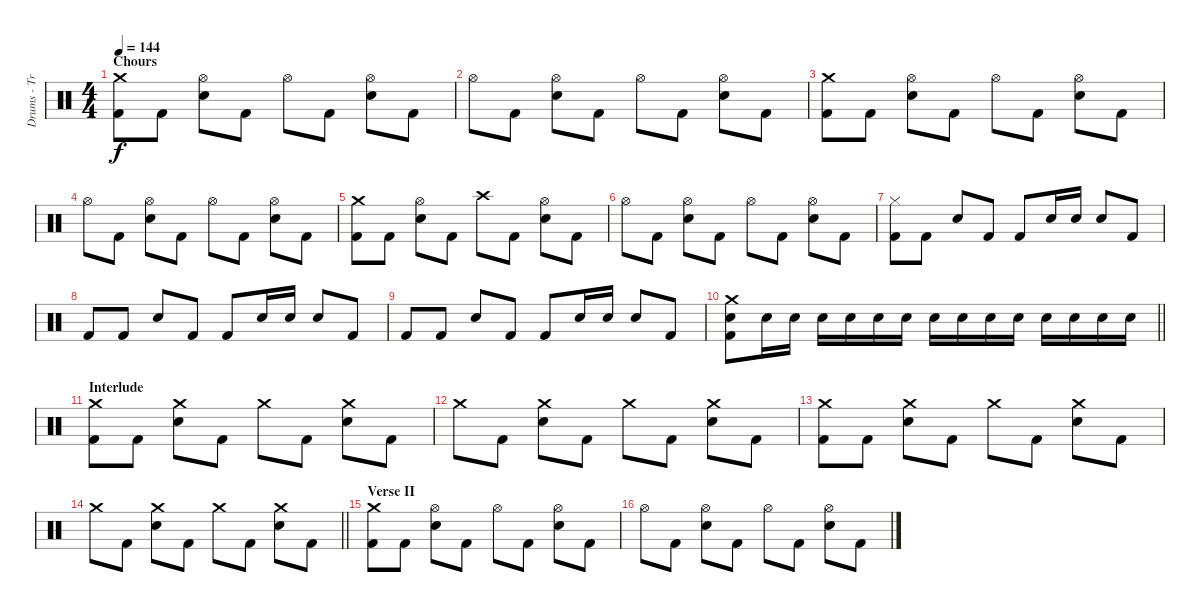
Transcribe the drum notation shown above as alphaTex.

\track ("Drums - Tre Cool" "Drums - Tr") {instrument percussion}
\staff {score}
\articulation defaults
\ts (4 4)
\section ("" "Chours")
\tempo 144
\clef neutral
\ks c
("Crash medium (hit)" "Kick (hit) 2").8{dy f} "Kick (hit) 2".8 ("Hi-Hat (open)" "Snare (hit) 2").8 "Kick (hit) 2".8 "Hi-Hat (open)".8 "Kick (hit) 2".8 ("Hi-Hat (open)" "Snare (hit) 2").8 "Kick (hit) 2".8 |
"Hi-Hat (open)".8 "Kick (hit) 2".8 ("Hi-Hat (open)" "Snare (hit) 2").8 "Kick (hit) 2".8 "Hi-Hat (open)".8 "Kick (hit) 2".8 ("Hi-Hat (open)" "Snare (hit) 2").8 "Kick (hit) 2".8 |
("Crash medium (hit)" "Kick (hit) 2").8 "Kick (hit) 2".8 ("Hi-Hat (open)" "Snare (hit) 2").8 "Kick (hit) 2".8 "Hi-Hat (open)".8 "Kick (hit) 2".8 ("Hi-Hat (open)" "Snare (hit) 2").8 "Kick (hit) 2".8 |
"Hi-Hat (open)".8 "Kick (hit) 2".8 ("Hi-Hat (open)" "Snare (hit) 2").8 "Kick (hit) 2".8 "Hi-Hat (open)".8 "Kick (hit) 2".8 ("Hi-Hat (open)" "Snare (hit) 2").8 "Kick (hit) 2".8 |
("Crash medium (hit)" "Kick (hit) 2").8 "Kick (hit) 2".8 ("Hi-Hat (open)" "Snare (hit) 2").8 "Kick (hit) 2".8 "Crash high (hit)".8 "Kick (hit) 2".8 ("Hi-Hat (open)" "Snare (hit) 2").8 "Kick (hit) 2".8 |
"Hi-Hat (open)".8 "Kick (hit) 2".8 ("Hi-Hat (open)" "Snare (hit) 2").8 "Kick (hit) 2".8 "Hi-Hat (open)".8 "Kick (hit) 2".8 ("Hi-Hat (open)" "Snare (hit) 2").8 "Kick (hit) 2".8 |
("Hi-Hat (closed)" "Kick (hit) 2").8 "Kick (hit) 2".8 "Snare (hit) 2".8 "Kick (hit) 2".8 "Kick (hit) 2".8 "Snare (hit) 2".16 "Snare (hit) 2".16 "Snare (hit) 2".8 "Kick (hit) 2".8 |
"Kick (hit) 2".8 "Kick (hit) 2".8 "Snare (hit) 2".8 "Kick (hit) 2".8 "Kick (hit) 2".8 "Snare (hit) 2".16 "Snare (hit) 2".16 "Snare (hit) 2".8 "Kick (hit) 2".8 |
"Kick (hit) 2".8 "Kick (hit) 2".8 "Snare (hit) 2".8 "Kick (hit) 2".8 "Kick (hit) 2".8 "Snare (hit) 2".16 "Snare (hit) 2".16 "Snare (hit) 2".8 "Kick (hit) 2".8 |
\barLineRight lightlight
("Crash medium (hit)" "Snare (hit) 2" "Kick (hit) 2").8 "Snare (hit) 2".16 "Snare (hit) 2".16 "Snare (hit) 2".16 "Snare (hit) 2".16 "Snare (hit) 2".16 "Snare (hit) 2".16 "Snare (hit) 2".16 "Snare (hit) 2".16 "Snare (hit) 2".16 "Snare (hit) 2".16 "Snare (hit) 2".16 "Snare (hit) 2".16 "Snare (hit) 2".16 "Snare (hit) 2".16 |
\section ("" "Interlude ")
("Crash medium (hit)" "Kick (hit) 2").8 "Kick (hit) 2".8 ("Crash medium (hit)" "Snare (hit) 2").8 "Kick (hit) 2".8 "Crash medium (hit)".8 "Kick (hit) 2".8 ("Crash medium (hit)" "Snare (hit) 2").8 "Kick (hit) 2".8 |
"Crash medium (hit)".8 "Kick (hit) 2".8 ("Crash medium (hit)" "Snare (hit) 2").8 "Kick (hit) 2".8 "Crash medium (hit)".8 "Kick (hit) 2".8 ("Crash medium (hit)" "Snare (hit) 2").8 "Kick (hit) 2".8 |
("Crash medium (hit)" "Kick (hit) 2").8 "Kick (hit) 2".8 ("Crash medium (hit)" "Snare (hit) 2").8 "Kick (hit) 2".8 "Crash medium (hit)".8 "Kick (hit) 2".8 ("Crash medium (hit)" "Snare (hit) 2").8 "Kick (hit) 2".8 |
\barLineRight lightlight "Crash medium (hit)".8 "Kick (hit) 2".8
("Crash medium (hit)" "Snare (hit) 2").8 "Kick (hit) 2".8 "Crash medium (hit)".8 "Kick (hit) 2".8 ("Crash medium (hit)" "Snare (hit) 2").8 "Kick (hit) 2".8 |
\section ("" "Verse II")
("Crash medium (hit)" "Kick (hit) 2").8 "Kick (hit) 2".8 ("Hi-Hat (open)" "Snare (hit) 2").8 "Kick (hit) 2".8 "Hi-Hat (open)".8 "Kick (hit) 2".8 ("Hi-Hat (open)" "Snare (hit) 2").8 "Kick (hit) 2".8 |
"Hi-Hat (open)".8 "Kick (hit) 2".8 ("Hi-Hat (open)" "Snare (hit) 2").8 "Kick (hit) 2".8 "Hi-Hat (open)".8 "Kick (hit) 2".8 ("Hi-Hat (open)" "Snare (hit) 2").8 "Kick (hit) 2".8
